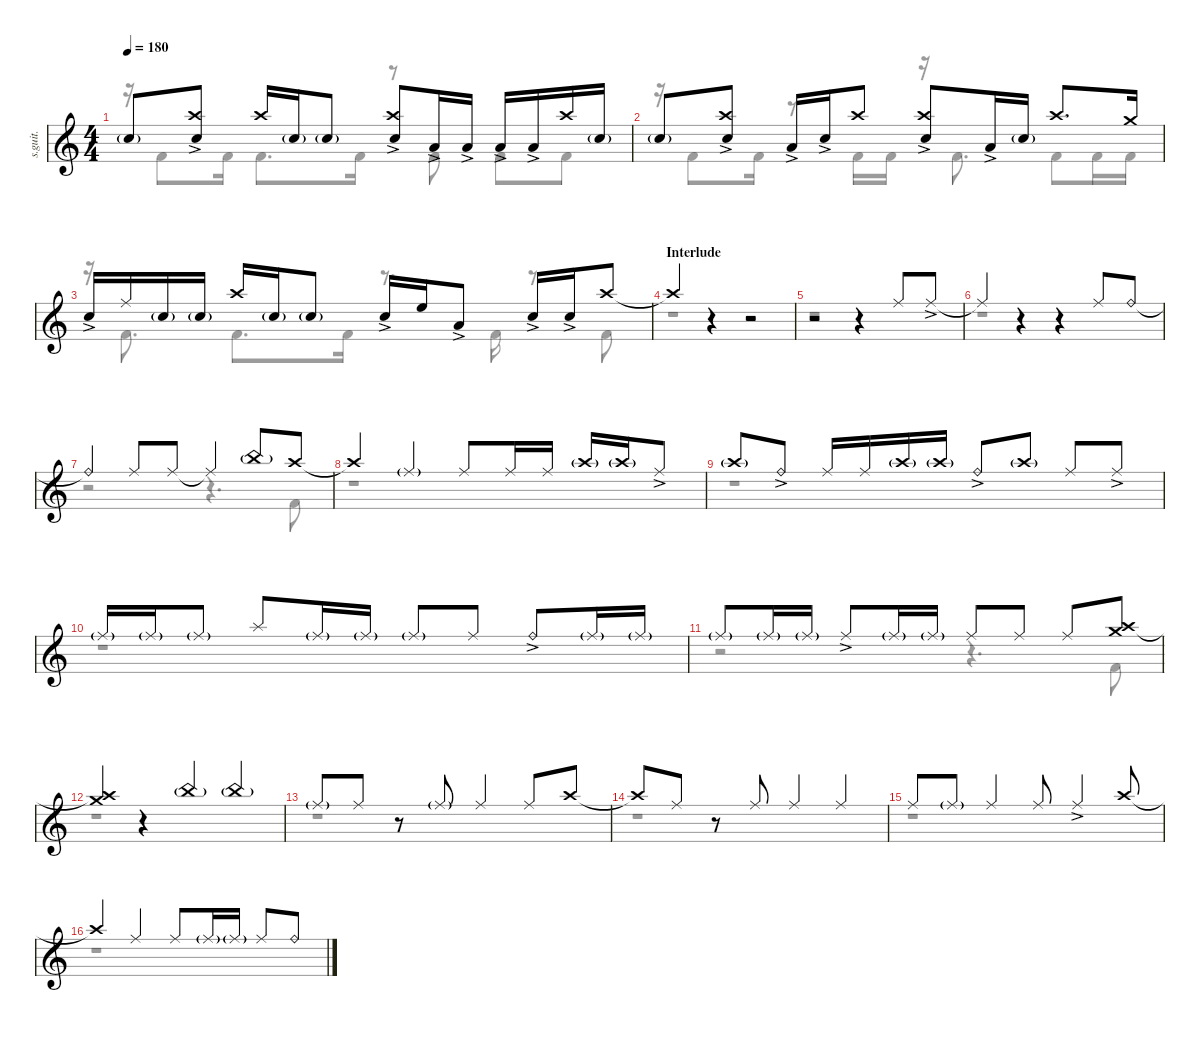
\defaultSystemsLayout 4
\hideDynamics
\bracketExtendMode nobrackets
\track ("Percussion" "s.guit.") {instrument percussion}
\staff {score}
\articulation defaults
\voice
\ts (4 4)
\tempo 180
\clef g2
\ks c "Snare (hit) 2"{g}.8{lyrics (0 "") lyrics (1 "") lyrics (2 "") lyrics (3 "") lyrics (4 "") dy f}
("Snare (hit) 2"{ac} "Crash high (hit)").8{lyrics (0 "") lyrics (1 "") lyrics (2 "") lyrics (3 "") lyrics (4 "")} "Crash high (hit)".16{lyrics (0 "") lyrics (1 "") lyrics (2 "") lyrics (3 "") lyrics (4 "")} "Snare (hit) 2"{g}.16{lyrics (0 "") lyrics (1 "") lyrics (2 "") lyrics (3 "") lyrics (4 "")} "Snare (hit) 2"{g}.8{lyrics (0 "") lyrics (1 "") lyrics (2 "") lyrics (3 "") lyrics (4 "")} ("Snare (hit) 2"{ac} "Crash high (hit)").8{lyrics (0 "") lyrics (1 "") lyrics (2 "") lyrics (3 "") lyrics (4 "")} "Low Tom (hit)"{ac}.16{lyrics (0 "") lyrics (1 "") lyrics (2 "") lyrics (3 "") lyrics (4 "")} "Low Tom (hit)"{ac}.16{lyrics (0 "") lyrics (1 "") lyrics (2 "") lyrics (3 "") lyrics (4 "")} "Low Tom (hit)"{ac}.16{lyrics (0 "") lyrics (1 "") lyrics (2 "") lyrics (3 "") lyrics (4 "")} "Low Tom (hit)"{ac}.16{lyrics (0 "") lyrics (1 "") lyrics (2 "") lyrics (3 "") lyrics (4 "")} "Crash high (hit)".16{lyrics (0 "") lyrics (1 "") lyrics (2 "") lyrics (3 "") lyrics (4 "")} "Snare (hit) 2"{g}.16{lyrics (0 "") lyrics (1 "") lyrics (2 "") lyrics (3 "") lyrics (4 "")} |
"Snare (hit) 2"{g}.8{lyrics (0 "") lyrics (1 "") lyrics (2 "") lyrics (3 "") lyrics (4 "")} ("Snare (hit) 2"{ac} "Crash high (hit)").8{lyrics (0 "") lyrics (1 "") lyrics (2 "") lyrics (3 "") lyrics (4 "")} "Low Tom (hit)"{ac}.16{lyrics (0 "") lyrics (1 "") lyrics (2 "") lyrics (3 "") lyrics (4 "")} "Snare (hit) 2"{ac}.16{lyrics (0 "") lyrics (1 "") lyrics (2 "") lyrics (3 "") lyrics (4 "")} "Crash high (hit)".8{lyrics (0 "") lyrics (1 "") lyrics (2 "") lyrics (3 "") lyrics (4 "")} ("Snare (hit) 2"{ac} "Crash high (hit)").8{lyrics (0 "") lyrics (1 "") lyrics (2 "") lyrics (3 "") lyrics (4 "")} "Low Tom (hit)"{ac}.16{lyrics (0 "") lyrics (1 "") lyrics (2 "") lyrics (3 "") lyrics (4 "")} "Snare (hit) 2"{g}.16{lyrics (0 "") lyrics (1 "") lyrics (2 "") lyrics (3 "") lyrics (4 "")} "Crash high (hit)".8{d lyrics (0 "") lyrics (1 "") lyrics (2 "") lyrics (3 "") lyrics (4 "")} "Crash medium (hit)".16{lyrics (0 "") lyrics (1 "") lyrics (2 "") lyrics (3 "") lyrics (4 "")} |
"Snare (hit) 2"{ac}.16{lyrics (0 "") lyrics (1 "") lyrics (2 "") lyrics (3 "") lyrics (4 "")} "Ride (middle)".16{lyrics (0 "") lyrics (1 "") lyrics (2 "") lyrics (3 "") lyrics (4 "")} "Snare (hit) 2"{g}.16{lyrics (0 "") lyrics (1 "") lyrics (2 "") lyrics (3 "") lyrics (4 "")} "Snare (hit) 2"{g}.16{lyrics (0 "") lyrics (1 "") lyrics (2 "") lyrics (3 "") lyrics (4 "")} "Crash high (hit)".16{lyrics (0 "") lyrics (1 "") lyrics (2 "") lyrics (3 "") lyrics (4 "")} "Snare (hit) 2"{g}.16{lyrics (0 "") lyrics (1 "") lyrics (2 "") lyrics (3 "") lyrics (4 "")} "Snare (hit) 2"{g}.8{lyrics (0 "") lyrics (1 "") lyrics (2 "") lyrics (3 "") lyrics (4 "")} "Snare (hit) 2"{ac}.16{lyrics (0 "") lyrics (1 "") lyrics (2 "") lyrics (3 "") lyrics (4 "")} "High Floor Tom (hit)".16{lyrics (0 "") lyrics (1 "") lyrics (2 "") lyrics (3 "") lyrics (4 "")} "Low Tom (hit)"{ac}.8{lyrics (0 "") lyrics (1 "") lyrics (2 "") lyrics (3 "") lyrics (4 "")} "Snare (hit) 2"{ac}.16{lyrics (0 "") lyrics (1 "") lyrics (2 "") lyrics (3 "") lyrics (4 "")} "Snare (hit) 2"{ac}.16{lyrics (0 "") lyrics (1 "") lyrics (2 "") lyrics (3 "") lyrics (4 "")} "Crash high (hit)".8{lyrics (0 "") lyrics (1 "") lyrics (2 "") lyrics (3 "") lyrics (4 "")} |
\section ("" "Interlude")
"Crash high (hit)"{t}.4{lyrics (0 "") lyrics (1 "") lyrics (2 "") lyrics (3 "") lyrics (4 "")} r.4 r.2 |
r.2 r.4 "Ride (middle)".8{lyrics (0 "") lyrics (1 "") lyrics (2 "") lyrics (3 "") lyrics (4 "") dy mp} "Ride (middle)"{ac}.8{lyrics (0 "") lyrics (1 "") lyrics (2 "") lyrics (3 "") lyrics (4 "")} |
"Ride (middle)"{t}.4{lyrics (0 "") lyrics (1 "") lyrics (2 "") lyrics (3 "") lyrics (4 "")} r.4 r.4 "Ride (middle)".8{lyrics (0 "") lyrics (1 "") lyrics (2 "") lyrics (3 "") lyrics (4 "")} "Ride (bell)".8{lyrics (0 "") lyrics (1 "") lyrics (2 "") lyrics (3 "") lyrics (4 "")} |
"Ride (bell)"{t}.4{lyrics (0 "") lyrics (1 "") lyrics (2 "") lyrics (3 "") lyrics (4 "")} "Ride (middle)".8{lyrics (0 "") lyrics (1 "") lyrics (2 "") lyrics (3 "") lyrics (4 "")} "Ride (middle)".8{lyrics (0 "") lyrics (1 "") lyrics (2 "") lyrics (3 "") lyrics (4 "")} "Ride (middle)"{t}.4{lyrics (0 "") lyrics (1 "") lyrics (2 "") lyrics (3 "") lyrics (4 "")} "China (hit)"{g}.8{lyrics (0 "") lyrics (1 "") lyrics (2 "") lyrics (3 "") lyrics (4 "")} "Crash high (hit)".8{lyrics (0 "") lyrics (1 "") lyrics (2 "") lyrics (3 "") lyrics (4 "")} |
"Crash high (hit)"{t}.4{lyrics (0 "") lyrics (1 "") lyrics (2 "") lyrics (3 "") lyrics (4 "") dy f} "Ride (middle)"{g}.4{lyrics (0 "") lyrics (1 "") lyrics (2 "") lyrics (3 "") lyrics (4 "") dy mp} "Ride (middle)".8{lyrics (0 "") lyrics (1 "") lyrics (2 "") lyrics (3 "") lyrics (4 "")} "Ride (middle)".16{lyrics (0 "") lyrics (1 "") lyrics (2 "") lyrics (3 "") lyrics (4 "")} "Ride (middle)".16{lyrics (0 "") lyrics (1 "") lyrics (2 "") lyrics (3 "") lyrics (4 "")} "Crash high (hit)"{g}.16{lyrics (0 "") lyrics (1 "") lyrics (2 "") lyrics (3 "") lyrics (4 "")} "Crash high (hit)"{g}.16{lyrics (0 "") lyrics (1 "") lyrics (2 "") lyrics (3 "") lyrics (4 "")} "Ride (middle)"{ac}.8{lyrics (0 "") lyrics (1 "") lyrics (2 "") lyrics (3 "") lyrics (4 "")} |
"Crash high (hit)"{g}.8{lyrics (0 "") lyrics (1 "") lyrics (2 "") lyrics (3 "") lyrics (4 "")} "Ride (bell)"{ac}.8{lyrics (0 "") lyrics (1 "") lyrics (2 "") lyrics (3 "") lyrics (4 "")} "Ride (middle)".16{lyrics (0 "") lyrics (1 "") lyrics (2 "") lyrics (3 "") lyrics (4 "")} "Ride (middle)".16{lyrics (0 "") lyrics (1 "") lyrics (2 "") lyrics (3 "") lyrics (4 "")} "Crash high (hit)"{g}.16{lyrics (0 "") lyrics (1 "") lyrics (2 "") lyrics (3 "") lyrics (4 "")} "Crash high (hit)"{g}.16{lyrics (0 "") lyrics (1 "") lyrics (2 "") lyrics (3 "") lyrics (4 "")} "Ride (bell)"{ac}.8{lyrics (0 "") lyrics (1 "") lyrics (2 "") lyrics (3 "") lyrics (4 "")} "Crash high (hit)"{g}.8{lyrics (0 "") lyrics (1 "") lyrics (2 "") lyrics (3 "") lyrics (4 "")} "Ride (middle)".8{lyrics (0 "") lyrics (1 "") lyrics (2 "") lyrics (3 "") lyrics (4 "")} "Ride (middle)"{ac}.8{lyrics (0 "") lyrics (1 "") lyrics (2 "") lyrics (3 "") lyrics (4 "")} |
"Ride (middle)"{g}.16{lyrics (0 "") lyrics (1 "") lyrics (2 "") lyrics (3 "") lyrics (4 "")} "Ride (middle)"{g}.16{lyrics (0 "") lyrics (1 "") lyrics (2 "") lyrics (3 "") lyrics (4 "")} "Ride (middle)"{g}.8{lyrics (0 "") lyrics (1 "") lyrics (2 "") lyrics (3 "") lyrics (4 "")} "Splash (hit)".8{lyrics (0 "") lyrics (1 "") lyrics (2 "") lyrics (3 "") lyrics (4 "")} "Ride (middle)"{g}.16{lyrics (0 "") lyrics (1 "") lyrics (2 "") lyrics (3 "") lyrics (4 "")} "Ride (middle)"{g}.16{lyrics (0 "") lyrics (1 "") lyrics (2 "") lyrics (3 "") lyrics (4 "")} "Ride (middle)"{g}.8{lyrics (0 "") lyrics (1 "") lyrics (2 "") lyrics (3 "") lyrics (4 "")} "Ride (middle)".8{lyrics (0 "") lyrics (1 "") lyrics (2 "") lyrics (3 "") lyrics (4 "")} "Ride (bell)"{ac}.8{lyrics (0 "") lyrics (1 "") lyrics (2 "") lyrics (3 "") lyrics (4 "")} "Ride (middle)"{g}.16{lyrics (0 "") lyrics (1 "") lyrics (2 "") lyrics (3 "") lyrics (4 "")} "Ride (middle)"{g}.16{lyrics (0 "") lyrics (1 "") lyrics (2 "") lyrics (3 "") lyrics (4 "")} |
"Ride (middle)"{g}.8{lyrics (0 "") lyrics (1 "") lyrics (2 "") lyrics (3 "") lyrics (4 "")} "Ride (middle)"{g}.16{lyrics (0 "") lyrics (1 "") lyrics (2 "") lyrics (3 "") lyrics (4 "")} "Ride (middle)"{g}.16{lyrics (0 "") lyrics (1 "") lyrics (2 "") lyrics (3 "") lyrics (4 "")} "Ride (middle)"{ac}.8{lyrics (0 "") lyrics (1 "") lyrics (2 "") lyrics (3 "") lyrics (4 "")} "Ride (middle)"{g}.16{lyrics (0 "") lyrics (1 "") lyrics (2 "") lyrics (3 "") lyrics (4 "")} "Ride (middle)"{g}.16{lyrics (0 "") lyrics (1 "") lyrics (2 "") lyrics (3 "") lyrics (4 "")} "Ride (middle)".8{lyrics (0 "") lyrics (1 "") lyrics (2 "") lyrics (3 "") lyrics (4 "")} "Ride (middle)".8{lyrics (0 "") lyrics (1 "") lyrics (2 "") lyrics (3 "") lyrics (4 "")} "Ride (middle)".8{lyrics (0 "") lyrics (1 "") lyrics (2 "") lyrics (3 "") lyrics (4 "")} ("Crash high (hit)" "Crash medium (hit)").8{lyrics (0 "") lyrics (1 "") lyrics (2 "") lyrics (3 "") lyrics (4 "")} |
("Crash high (hit)"{t} "Crash medium (hit)").4{lyrics (0 "") lyrics (1 "") lyrics (2 "") lyrics (3 "") lyrics (4 "")} r.4 "China (hit)"{g}.4{lyrics (0 "") lyrics (1 "") lyrics (2 "") lyrics (3 "") lyrics (4 "")} "China (hit)"{g}.4{lyrics (0 "") lyrics (1 "") lyrics (2 "") lyrics (3 "") lyrics (4 "")} |
"Ride (middle)"{g}.8{lyrics (0 "") lyrics (1 "") lyrics (2 "") lyrics (3 "") lyrics (4 "")} "Ride (middle)".8{lyrics (0 "") lyrics (1 "") lyrics (2 "") lyrics (3 "") lyrics (4 "")} r.8 "Ride (middle)"{g}.8{lyrics (0 "") lyrics (1 "") lyrics (2 "") lyrics (3 "") lyrics (4 "")} "Ride (middle)".4{lyrics (0 "") lyrics (1 "") lyrics (2 "") lyrics (3 "") lyrics (4 "")} "Ride (middle)".8{lyrics (0 "") lyrics (1 "") lyrics (2 "") lyrics (3 "") lyrics (4 "")} "Crash high (hit)".8{lyrics (0 "") lyrics (1 "") lyrics (2 "") lyrics (3 "") lyrics (4 "")} |
"Crash high (hit)"{t}.8{lyrics (0 "") lyrics (1 "") lyrics (2 "") lyrics (3 "") lyrics (4 "")} "Ride (middle)".8{lyrics (0 "") lyrics (1 "") lyrics (2 "") lyrics (3 "") lyrics (4 "")} r.8 "Ride (middle)".8{lyrics (0 "") lyrics (1 "") lyrics (2 "") lyrics (3 "") lyrics (4 "")} "Ride (middle)".4{lyrics (0 "") lyrics (1 "") lyrics (2 "") lyrics (3 "") lyrics (4 "")} "Ride (middle)".4{lyrics (0 "") lyrics (1 "") lyrics (2 "") lyrics (3 "") lyrics (4 "")} |
"Ride (middle)".8{lyrics (0 "") lyrics (1 "") lyrics (2 "") lyrics (3 "") lyrics (4 "")} "Ride (middle)"{g}.8{lyrics (0 "") lyrics (1 "") lyrics (2 "") lyrics (3 "") lyrics (4 "")} "Ride (middle)".4{lyrics (0 "") lyrics (1 "") lyrics (2 "") lyrics (3 "") lyrics (4 "")} "Ride (middle)".8{lyrics (0 "") lyrics (1 "") lyrics (2 "") lyrics (3 "") lyrics (4 "")} "Ride (middle)"{ac}.4{lyrics (0 "") lyrics (1 "") lyrics (2 "") lyrics (3 "") lyrics (4 "")} "Crash high (hit)".8{lyrics (0 "") lyrics (1 "") lyrics (2 "") lyrics (3 "") lyrics (4 "")} |
"Crash high (hit)"{t}.4{lyrics (0 "") lyrics (1 "") lyrics (2 "") lyrics (3 "") lyrics (4 "")} "Ride (middle)".4{lyrics (0 "") lyrics (1 "") lyrics (2 "") lyrics (3 "") lyrics (4 "")} "Ride (middle)".8{lyrics (0 "") lyrics (1 "") lyrics (2 "") lyrics (3 "") lyrics (4 "")} "Ride (middle)"{g}.16{lyrics (0 "") lyrics (1 "") lyrics (2 "") lyrics (3 "") lyrics (4 "")} "Ride (middle)"{g}.16{lyrics (0 "") lyrics (1 "") lyrics (2 "") lyrics (3 "") lyrics (4 "")} "Ride (middle)".8{lyrics (0 "") lyrics (1 "") lyrics (2 "") lyrics (3 "") lyrics (4 "")} "Ride (bell)".8{lyrics (0 "") lyrics (1 "") lyrics (2 "") lyrics (3 "") lyrics (4 "")}
\voice
\clef g2
\ottava regular
\simile none
\ks c
r.16{dy f} "Kick (hit) 2".8{lyrics (0 "") lyrics (1 "") lyrics (2 "") lyrics (3 "") lyrics (4 "")} "Kick (hit) 2".16{lyrics (0 "") lyrics (1 "") lyrics (2 "") lyrics (3 "") lyrics (4 "")} "Kick (hit) 2".8{d lyrics (0 "") lyrics (1 "") lyrics (2 "") lyrics (3 "") lyrics (4 "")} "Kick (hit) 2".16{lyrics (0 "") lyrics (1 "") lyrics (2 "") lyrics (3 "") lyrics (4 "")} r.8 "Kick (hit) 2".8{lyrics (0 "") lyrics (1 "") lyrics (2 "") lyrics (3 "") lyrics (4 "")} "Kick (hit) 2".8{lyrics (0 "") lyrics (1 "") lyrics (2 "") lyrics (3 "") lyrics (4 "")} "Kick (hit) 2".8{lyrics (0 "") lyrics (1 "") lyrics (2 "") lyrics (3 "") lyrics (4 "")} |
r.16 "Kick (hit) 2".8{lyrics (0 "") lyrics (1 "") lyrics (2 "") lyrics (3 "") lyrics (4 "")} "Kick (hit) 2".16{lyrics (0 "") lyrics (1 "") lyrics (2 "") lyrics (3 "") lyrics (4 "")} r.8 "Kick (hit) 2".16{lyrics (0 "") lyrics (1 "") lyrics (2 "") lyrics (3 "") lyrics (4 "")} "Kick (hit) 2".16{lyrics (0 "") lyrics (1 "") lyrics (2 "") lyrics (3 "") lyrics (4 "")} r.16 "Kick (hit) 2".8{d lyrics (0 "") lyrics (1 "") lyrics (2 "") lyrics (3 "") lyrics (4 "")} "Kick (hit) 2".8{lyrics (0 "") lyrics (1 "") lyrics (2 "") lyrics (3 "") lyrics (4 "")} "Kick (hit) 2".16{lyrics (0 "") lyrics (1 "") lyrics (2 "") lyrics (3 "") lyrics (4 "")} "Kick (hit) 2".16{lyrics (0 "") lyrics (1 "") lyrics (2 "") lyrics (3 "") lyrics (4 "")} |
r.16 "Kick (hit) 2".8{d lyrics (0 "") lyrics (1 "") lyrics (2 "") lyrics (3 "") lyrics (4 "")} "Kick (hit) 2".8{d lyrics (0 "") lyrics (1 "") lyrics (2 "") lyrics (3 "") lyrics (4 "")} "Kick (hit) 2".16{lyrics (0 "") lyrics (1 "") lyrics (2 "") lyrics (3 "") lyrics (4 "")} r.8{d} "Kick (hit) 2".16{lyrics (0 "") lyrics (1 "") lyrics (2 "") lyrics (3 "") lyrics (4 "")} r.8 "Kick (hit) 2".8{lyrics (0 "") lyrics (1 "") lyrics (2 "") lyrics (3 "") lyrics (4 "")} |
r.1 |
r.1 |
r.1 |
r.2 r.4{d} "Kick (hit) 2".8{lyrics (0 "") lyrics (1 "") lyrics (2 "") lyrics (3 "") lyrics (4 "")} |
r.1 |
r.1 |
r.1 |
r.2 r.4{d} "Kick (hit) 2".8{lyrics (0 "") lyrics (1 "") lyrics (2 "") lyrics (3 "") lyrics (4 "") dy mp} |
r.1 |
r.1 |
r.1 |
r.1 |
r.1
